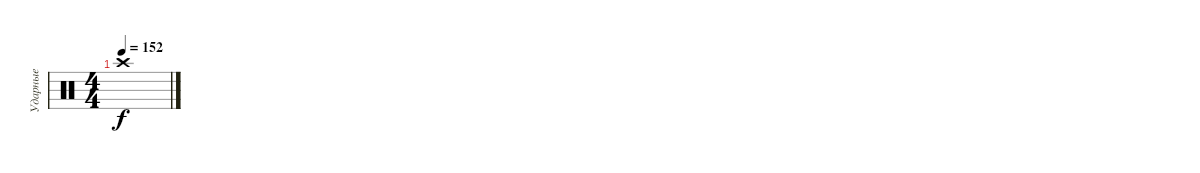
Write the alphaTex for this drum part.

\track ("Ударные" "Ударные") {instrument percussion}
\staff {score}
\articulation defaults
\ts (4 4)
\tempo 152
\clef neutral
\ks c "Crash high (hit)".1{dy f}
